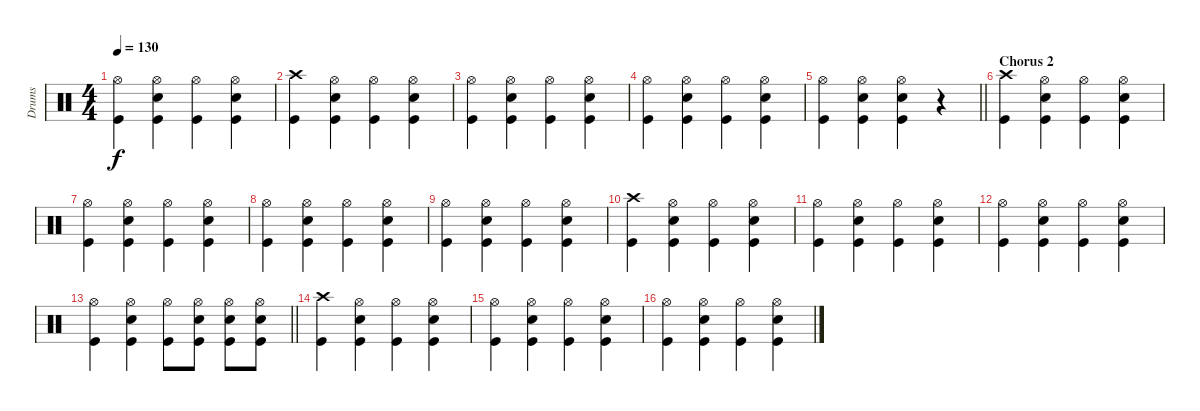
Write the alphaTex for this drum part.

\track ("Drums" "Drums") {instrument percussion}
\staff {score}
\articulation defaults
\ts (4 4)
\tempo 130
\clef neutral
\ks c
("Hi-Hat (open)" "Kick (hit)").4{dy f} ("Kick (hit)" "Snare (hit) 2" "Hi-Hat (open)").4 ("Hi-Hat (open)" "Kick (hit)").4 ("Hi-Hat (open)" "Snare (hit) 2" "Kick (hit)").4 |
("Crash high (hit)" "Kick (hit)").4 ("Kick (hit)" "Snare (hit) 2" "Hi-Hat (open)").4 ("Hi-Hat (open)" "Kick (hit)").4 ("Hi-Hat (open)" "Snare (hit) 2" "Kick (hit)").4 |
("Hi-Hat (open)" "Kick (hit)").4 ("Kick (hit)" "Snare (hit) 2" "Hi-Hat (open)").4 ("Hi-Hat (open)" "Kick (hit)").4 ("Hi-Hat (open)" "Snare (hit) 2" "Kick (hit)").4 |
("Hi-Hat (open)" "Kick (hit)").4 ("Kick (hit)" "Snare (hit) 2" "Hi-Hat (open)").4 ("Hi-Hat (open)" "Kick (hit)").4 ("Hi-Hat (open)" "Snare (hit) 2" "Kick (hit)").4 |
\barLineRight lightlight
("Hi-Hat (open)" "Kick (hit)").4 ("Kick (hit)" "Snare (hit) 2" "Hi-Hat (open)").4 ("Hi-Hat (open)" "Snare (hit) 2" "Kick (hit)").4 r.4 |
\section ("" "Chorus 2")
("Crash high (hit)" "Kick (hit)").4 ("Kick (hit)" "Snare (hit) 2" "Hi-Hat (open)").4 ("Hi-Hat (open)" "Kick (hit)").4 ("Hi-Hat (open)" "Snare (hit) 2" "Kick (hit)").4 |
("Hi-Hat (open)" "Kick (hit)").4 ("Kick (hit)" "Snare (hit) 2" "Hi-Hat (open)").4 ("Hi-Hat (open)" "Kick (hit)").4 ("Hi-Hat (open)" "Snare (hit) 2" "Kick (hit)").4 |
("Hi-Hat (open)" "Kick (hit)").4 ("Kick (hit)" "Snare (hit) 2" "Hi-Hat (open)").4 ("Hi-Hat (open)" "Kick (hit)").4 ("Hi-Hat (open)" "Snare (hit) 2" "Kick (hit)").4 |
("Hi-Hat (open)" "Kick (hit)").4 ("Kick (hit)" "Snare (hit) 2" "Hi-Hat (open)").4 ("Hi-Hat (open)" "Kick (hit)").4 ("Hi-Hat (open)" "Snare (hit) 2" "Kick (hit)").4 |
("Crash high (hit)" "Kick (hit)").4 ("Kick (hit)" "Snare (hit) 2" "Hi-Hat (open)").4 ("Hi-Hat (open)" "Kick (hit)").4 ("Hi-Hat (open)" "Snare (hit) 2" "Kick (hit)").4 |
("Hi-Hat (open)" "Kick (hit)").4 ("Kick (hit)" "Snare (hit) 2" "Hi-Hat (open)").4 ("Hi-Hat (open)" "Kick (hit)").4 ("Hi-Hat (open)" "Snare (hit) 2" "Kick (hit)").4 |
("Hi-Hat (open)" "Kick (hit)").4 ("Kick (hit)" "Snare (hit) 2" "Hi-Hat (open)").4 ("Hi-Hat (open)" "Kick (hit)").4 ("Hi-Hat (open)" "Snare (hit) 2" "Kick (hit)").4 |
\barLineRight lightlight
("Hi-Hat (open)" "Kick (hit)").4 ("Kick (hit)" "Snare (hit) 2" "Hi-Hat (open)").4 ("Hi-Hat (open)" "Kick (hit)").8 ("Hi-Hat (open)" "Snare (hit) 2" "Kick (hit)").8 ("Hi-Hat (open)" "Snare (hit) 2" "Kick (hit)").8 ("Hi-Hat (open)" "Snare (hit) 2" "Kick (hit)").8 |
("Crash high (hit)" "Kick (hit)").4 ("Kick (hit)" "Snare (hit) 2" "Hi-Hat (open)").4 ("Hi-Hat (open)" "Kick (hit)").4 ("Hi-Hat (open)" "Snare (hit) 2" "Kick (hit)").4 |
("Hi-Hat (open)" "Kick (hit)").4 ("Kick (hit)" "Snare (hit) 2" "Hi-Hat (open)").4 ("Hi-Hat (open)" "Kick (hit)").4 ("Hi-Hat (open)" "Snare (hit) 2" "Kick (hit)").4 |
("Hi-Hat (open)" "Kick (hit)").4 ("Kick (hit)" "Snare (hit) 2" "Hi-Hat (open)").4 ("Hi-Hat (open)" "Kick (hit)").4 ("Hi-Hat (open)" "Snare (hit) 2" "Kick (hit)").4
